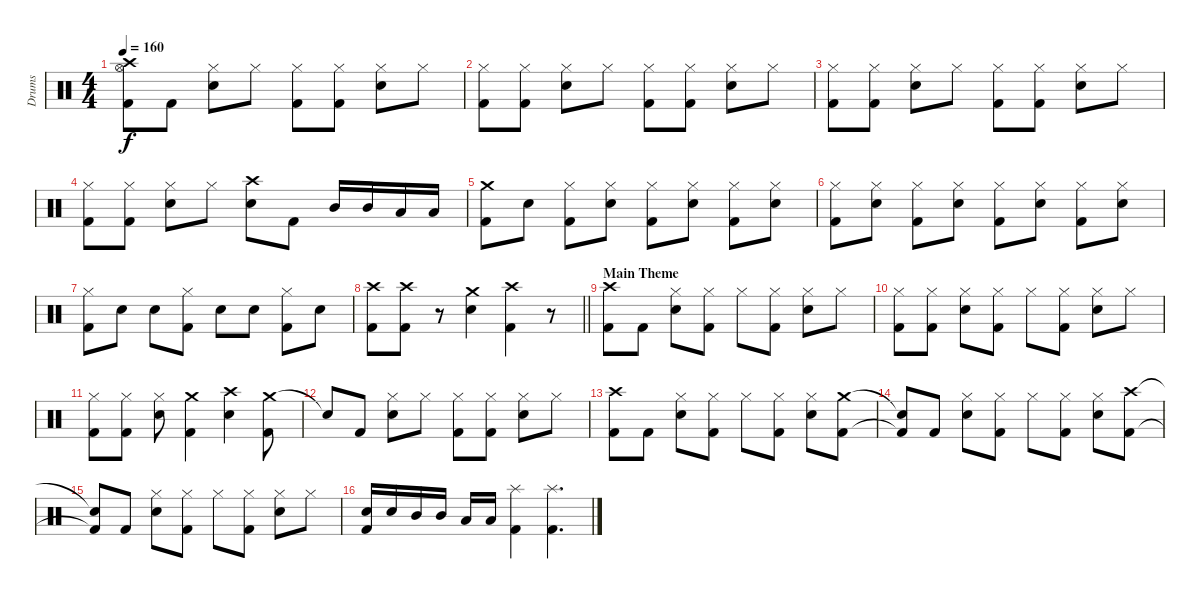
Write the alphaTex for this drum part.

\track ("Drums" "Drums") {instrument percussion}
\staff {score}
\articulation defaults
\ts (4 4)
\tempo 160
\clef neutral
\ks c
("Crash high (hit)" "Hi-Hat (open)" "Kick (hit) 2").8{dy f} "Kick (hit) 2".8 ("Hi-Hat (closed)" "Snare (hit) 2").8 "Hi-Hat (closed)".8 ("Hi-Hat (closed)" "Kick (hit) 2").8 ("Hi-Hat (closed)" "Kick (hit) 2").8 ("Hi-Hat (closed)" "Snare (hit) 2").8 "Hi-Hat (closed)".8 |
("Hi-Hat (closed)" "Kick (hit) 2").8 ("Hi-Hat (closed)" "Kick (hit) 2").8 ("Hi-Hat (closed)" "Snare (hit) 2").8 "Hi-Hat (closed)".8 ("Hi-Hat (closed)" "Kick (hit) 2").8 ("Hi-Hat (closed)" "Kick (hit) 2").8 ("Hi-Hat (closed)" "Snare (hit) 2").8 "Hi-Hat (closed)".8 |
("Hi-Hat (closed)" "Kick (hit) 2").8 ("Hi-Hat (closed)" "Kick (hit) 2").8 ("Hi-Hat (closed)" "Snare (hit) 2").8 "Hi-Hat (closed)".8 ("Hi-Hat (closed)" "Kick (hit) 2").8 ("Hi-Hat (closed)" "Kick (hit) 2").8 ("Hi-Hat (closed)" "Snare (hit) 2").8 "Hi-Hat (closed)".8 |
("Hi-Hat (closed)" "Kick (hit) 2").8 ("Hi-Hat (closed)" "Kick (hit) 2").8 ("Hi-Hat (closed)" "Snare (hit) 2").8 "Hi-Hat (closed)".8 ("Crash high (hit)" "Snare (hit) 2").8 "Kick (hit) 2".8 "Mid Tom (hit)".16 "Mid Tom (hit)".16 "Low Tom (hit)".16 "Low Tom (hit)".16 |
("Crash medium (hit)" "Kick (hit) 2").8 "Snare (hit) 2".8 ("Hi-Hat (closed)" "Kick (hit) 2").8 ("Hi-Hat (closed)" "Snare (hit) 2").8 ("Hi-Hat (closed)" "Kick (hit) 2").8 ("Hi-Hat (closed)" "Snare (hit) 2").8 ("Hi-Hat (closed)" "Kick (hit) 2").8 ("Hi-Hat (closed)" "Snare (hit) 2").8 |
("Hi-Hat (closed)" "Kick (hit) 2").8 ("Hi-Hat (closed)" "Snare (hit) 2").8 ("Hi-Hat (closed)" "Kick (hit) 2").8 ("Hi-Hat (closed)" "Snare (hit) 2").8 ("Hi-Hat (closed)" "Kick (hit) 2").8 ("Hi-Hat (closed)" "Snare (hit) 2").8 ("Hi-Hat (closed)" "Kick (hit) 2").8 ("Hi-Hat (closed)" "Snare (hit) 2").8 |
("Hi-Hat (closed)" "Kick (hit) 2").8 "Snare (hit) 2".8 "Snare (hit) 2".8 ("Hi-Hat (closed)" "Kick (hit) 2").8 "Snare (hit) 2".8 "Snare (hit) 2".8 ("Hi-Hat (closed)" "Kick (hit) 2").8 "Snare (hit) 2".8 |
\barLineRight lightlight
("Crash high (hit)" "Kick (hit) 2").8 ("Crash high (hit)" "Kick (hit) 2").8 r.8 ("Crash medium (hit)" "Snare (hit) 2").4 ("Crash high (hit)" "Kick (hit) 2").4 r.8 |
\section ("" "Main Theme")
("Crash high (hit)" "Kick (hit) 2").8 "Kick (hit) 2".8 ("Hi-Hat (closed)" "Snare (hit) 2").8 ("Hi-Hat (closed)" "Kick (hit) 2").8 "Hi-Hat (closed)".8 ("Hi-Hat (closed)" "Kick (hit) 2").8 ("Hi-Hat (closed)" "Snare (hit) 2").8 "Hi-Hat (closed)".8 |
("Hi-Hat (closed)" "Kick (hit) 2").8 ("Hi-Hat (closed)" "Kick (hit) 2").8 ("Hi-Hat (closed)" "Snare (hit) 2").8 ("Hi-Hat (closed)" "Kick (hit) 2").8 "Hi-Hat (closed)".8 ("Hi-Hat (closed)" "Kick (hit) 2").8 ("Hi-Hat (closed)" "Snare (hit) 2").8 "Hi-Hat (closed)".8 |
("Hi-Hat (closed)" "Kick (hit) 2").8 ("Hi-Hat (closed)" "Kick (hit) 2").8 ("Hi-Hat (closed)" "Snare (hit) 2").8 ("Crash medium (hit)" "Kick (hit) 2").4 ("Crash high (hit)" "Snare (hit) 2").4 ("Crash medium (hit)" "Kick (hit) 2").8 |
"Snare (hit)"{t}.8 "Kick (hit) 2".8 ("Hi-Hat (closed)" "Snare (hit) 2").8 "Hi-Hat (closed)".8 ("Hi-Hat (closed)" "Kick (hit) 2").8 ("Hi-Hat (closed)" "Kick (hit) 2").8 ("Hi-Hat (closed)" "Snare (hit) 2").8 "Hi-Hat (closed)".8 |
("Crash high (hit)" "Kick (hit) 2").8 "Kick (hit) 2".8 ("Hi-Hat (closed)" "Snare (hit) 2").8 ("Hi-Hat (closed)" "Kick (hit) 2").8 "Hi-Hat (closed)".8 ("Hi-Hat (closed)" "Kick (hit) 2").8 ("Hi-Hat (closed)" "Snare (hit) 2").8 ("Crash medium (hit)" "Kick (hit) 2").8 |
("Snare (hit)"{t} "Kick (hit) 2"{t}).8 "Kick (hit) 2".8 ("Hi-Hat (closed)" "Snare (hit) 2").8 ("Hi-Hat (closed)" "Kick (hit) 2").8 "Hi-Hat (closed)".8 ("Hi-Hat (closed)" "Kick (hit) 2").8 ("Hi-Hat (closed)" "Snare (hit) 2").8 ("Crash high (hit)" "Kick (hit) 2").8 |
("Snare (hit)"{t} "Kick (hit) 2"{t}).8 "Kick (hit) 2".8 ("Hi-Hat (closed)" "Snare (hit) 2").8 ("Hi-Hat (closed)" "Kick (hit) 2").8 "Hi-Hat (closed)".8 ("Hi-Hat (closed)" "Kick (hit) 2").8 ("Hi-Hat (closed)" "Snare (hit) 2").8 "Hi-Hat (closed)".8 |
("Snare (hit) 2" "Kick (hit) 2").16 "Snare (hit) 2".16 "Mid Tom (hit)".16 "Mid Tom (hit)".16 "Low Tom (hit)".16 "Low Tom (hit)".16 ("Splash (hit)" "Kick (hit) 2").4 ("Splash (hit)" "Kick (hit) 2").4{d}
